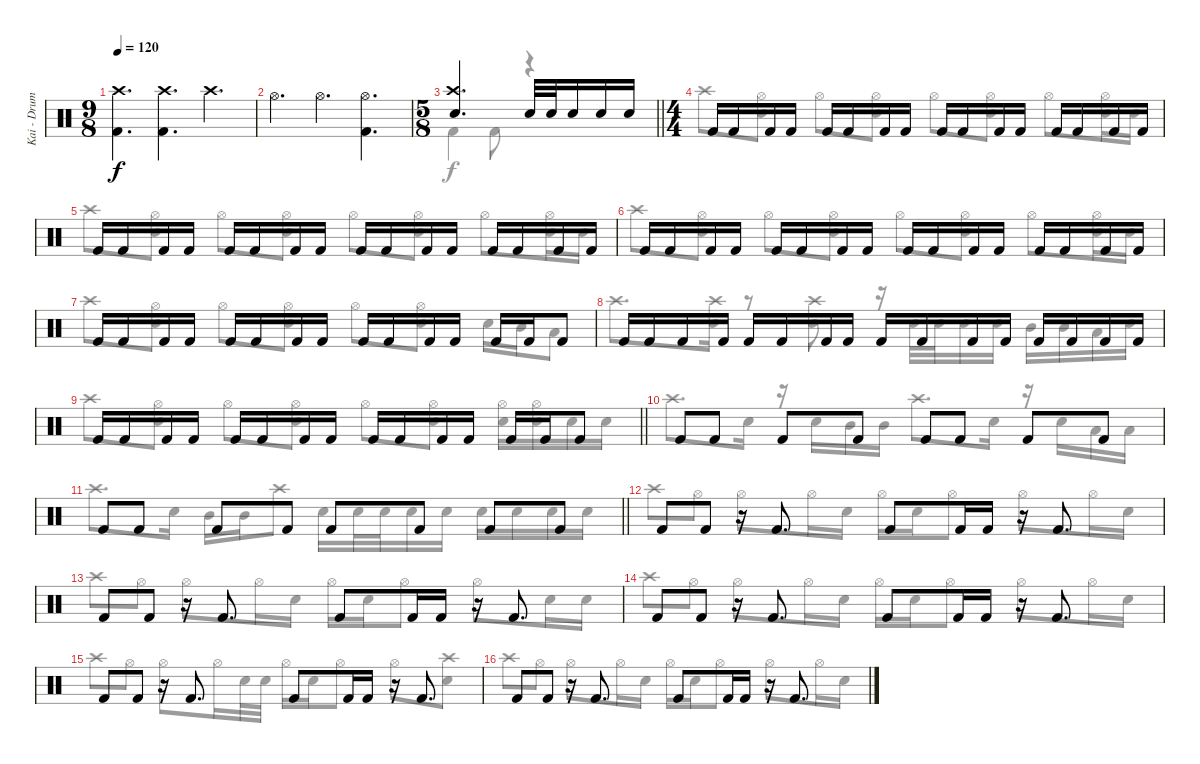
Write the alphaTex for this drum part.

\track ("Kai - Drums " "Kai - Drum") {instrument percussion}
\staff {score}
\articulation defaults
\voice
\ts (9 8)
\tempo 120
\clef neutral
\ks c
("Crash high (hit)" "Kick (hit) 2").4{d dy f} ("Crash high (hit)" "Kick (hit) 2").4{d} "Crash high (hit)".4{d} |
"Hi-Hat (open)".4{d} "Hi-Hat (open)".4{d} ("Hi-Hat (open)" "Kick (hit) 2").4{d} |
\ts (5 8)
\barLineRight lightlight
("Crash high (hit)" "Electric Snare (hit)").4{d} "Electric Snare (hit)".32 "Electric Snare (hit)".32 "Electric Snare (hit)".16 "Electric Snare (hit)".16 "Electric Snare (hit)".16 |
\ts (4 4)
"Kick (hit) 2".16 "Kick (hit) 2".16 "Kick (hit) 2".16 "Kick (hit) 2".16 "Kick (hit) 2".16 "Kick (hit) 2".16 "Kick (hit) 2".16 "Kick (hit) 2".16 "Kick (hit) 2".16 "Kick (hit) 2".16 "Kick (hit) 2".16 "Kick (hit) 2".16 "Kick (hit) 2".16 "Kick (hit) 2".16 "Kick (hit) 2".16 "Kick (hit) 2".16 |
"Kick (hit) 2".16 "Kick (hit) 2".16 "Kick (hit) 2".16 "Kick (hit) 2".16 "Kick (hit) 2".16 "Kick (hit) 2".16 "Kick (hit) 2".16 "Kick (hit) 2".16 "Kick (hit) 2".16 "Kick (hit) 2".16 "Kick (hit) 2".16 "Kick (hit) 2".16 "Kick (hit) 2".16 "Kick (hit) 2".16 "Kick (hit) 2".16 "Kick (hit) 2".16 |
"Kick (hit) 2".16 "Kick (hit) 2".16 "Kick (hit) 2".16 "Kick (hit) 2".16 "Kick (hit) 2".16 "Kick (hit) 2".16 "Kick (hit) 2".16 "Kick (hit) 2".16 "Kick (hit) 2".16 "Kick (hit) 2".16 "Kick (hit) 2".16 "Kick (hit) 2".16 "Kick (hit) 2".16 "Kick (hit) 2".16 "Kick (hit) 2".16 "Kick (hit) 2".16 |
"Kick (hit) 2".16 "Kick (hit) 2".16 "Kick (hit) 2".16 "Kick (hit) 2".16 "Kick (hit) 2".16 "Kick (hit) 2".16 "Kick (hit) 2".16 "Kick (hit) 2".16 "Kick (hit) 2".16 "Kick (hit) 2".16 "Kick (hit) 2".16 "Kick (hit) 2".16 "Kick (hit) 2".16 "Kick (hit) 2".16 "Kick (hit) 2".8 |
"Kick (hit) 2".16 "Kick (hit) 2".16 "Kick (hit) 2".16 "Kick (hit) 2".16 "Kick (hit) 2".16 "Kick (hit) 2".16 "Kick (hit) 2".16 "Kick (hit) 2".16 "Kick (hit) 2".16 "Kick (hit) 2".16 "Kick (hit) 2".16 "Kick (hit) 2".16 "Kick (hit) 2".16 "Kick (hit) 2".16 "Kick (hit) 2".16 "Kick (hit) 2".16 |
\barLineRight lightlight "Kick (hit) 2".16 "Kick (hit) 2".16 "Kick (hit) 2".16 "Kick (hit) 2".16 "Kick (hit) 2".16 "Kick (hit) 2".16 "Kick (hit) 2".16 "Kick (hit) 2".16 "Kick (hit) 2".16 "Kick (hit) 2".16 "Kick (hit) 2".16 "Kick (hit) 2".16 "Kick (hit) 2".16 "Kick (hit) 2".16 "Kick (hit) 2".8
|
"Kick (hit) 2".8 "Kick (hit) 2".8 "Kick (hit) 2".8 "Kick (hit) 2".8 "Kick (hit) 2".8 "Kick (hit) 2".8 "Kick (hit) 2".8 "Kick (hit) 2".8 |
\barLineRight lightlight "Kick (hit) 2".8 "Kick (hit) 2".8 "Kick (hit) 2".8 "Kick (hit) 2".8 "Kick (hit) 2".8 "Kick (hit) 2".8 "Kick (hit) 2".8 "Kick (hit) 2".8
|
"Kick (hit) 2".8 "Kick (hit) 2".8 r.16 "Kick (hit) 2".8{d} "Kick (hit) 2".8 "Kick (hit) 2".16 "Kick (hit) 2".16 r.16 "Kick (hit) 2".8{d} |
"Kick (hit) 2".8 "Kick (hit) 2".8 r.16 "Kick (hit) 2".8{d} "Kick (hit) 2".8 "Kick (hit) 2".16 "Kick (hit) 2".16 r.16 "Kick (hit) 2".8{d} |
"Kick (hit) 2".8 "Kick (hit) 2".8 r.16 "Kick (hit) 2".8{d} "Kick (hit) 2".8 "Kick (hit) 2".16 "Kick (hit) 2".16 r.16 "Kick (hit) 2".8{d} |
"Kick (hit) 2".8 "Kick (hit) 2".8 r.16 "Kick (hit) 2".8{d} "Kick (hit) 2".8 "Kick (hit) 2".16 "Kick (hit) 2".16 r.16 "Kick (hit) 2".8{d} |
"Kick (hit) 2".8 "Kick (hit) 2".8 r.16 "Kick (hit) 2".8{d} "Kick (hit) 2".8 "Kick (hit) 2".16 "Kick (hit) 2".16 r.16 "Kick (hit) 2".8{d}
\voice
\clef neutral
\ottava regular
\simile none
\ks c
|
|
\barLineRight lightlight "Kick (hit) 2".4 "Kick (hit) 2".8
r.4 |
"Crash high (hit)".8 ("Hi-Hat (open)" "Electric Snare (hit)").8 "Hi-Hat (open)".8 ("Hi-Hat (open)" "Electric Snare (hit)").8 "Hi-Hat (open)".8 ("Hi-Hat (open)" "Electric Snare (hit)").8 "Hi-Hat (open)".8 ("Hi-Hat (open)" "Electric Snare (hit)").16 "Electric Snare (hit)".16 |
"Crash high (hit)".8 ("Hi-Hat (open)" "Electric Snare (hit)").8 "Hi-Hat (open)".8 ("Hi-Hat (open)" "Electric Snare (hit)").8 "Hi-Hat (open)".8 ("Hi-Hat (open)" "Electric Snare (hit)").8 "Hi-Hat (open)".8 ("Hi-Hat (open)" "Electric Snare (hit)").16 "Electric Snare (hit)".16 |
"Crash high (hit)".8 ("Hi-Hat (open)" "Electric Snare (hit)").8 "Hi-Hat (open)".8 ("Hi-Hat (open)" "Electric Snare (hit)").8 "Hi-Hat (open)".8 ("Hi-Hat (open)" "Electric Snare (hit)").8 "Hi-Hat (open)".8 ("Hi-Hat (open)" "Electric Snare (hit)").16 "Electric Snare (hit)".16 |
"Crash high (hit)".8 ("Hi-Hat (open)" "Electric Snare (hit)").8 "Hi-Hat (open)".8 ("Hi-Hat (open)" "Electric Snare (hit)").8 "Hi-Hat (open)".8 ("Hi-Hat (open)" "Electric Snare (hit)").8 "Electric Snare (hit)".16 "Mid Tom (hit)".16 "Low Tom (hit)".8 |
"Crash high (hit)".8{d} ("Crash high (hit)" "Electric Snare (hit)").16 r.8 ("Crash high (hit)" "Electric Snare (hit)").8 r.16 "Electric Snare (hit)".32 "Electric Snare (hit)".32 "Electric Snare (hit)".16 "Electric Snare (hit)".16 "Mid Tom (hit)".16 "Mid Tom (hit)".16 "Low Tom (hit)".16 "Electric Snare (hit)".16 |
\barLineRight lightlight "Crash high (hit)".8
("Hi-Hat (open)" "Electric Snare (hit)").8 "Hi-Hat (open)".8 ("Hi-Hat (open)" "Electric Snare (hit)").8 "Hi-Hat (open)".8 ("Hi-Hat (open)" "Electric Snare (hit)").8 ("Hi-Hat (open)" "Electric Snare (hit)").16 ("Hi-Hat (open)" "Electric Snare (hit)").16 "Electric Snare (hit)".16 "Electric Snare (hit)".16 |
"Crash high (hit)".8{d} "Electric Snare (hit)".16 r.16 "Electric Snare (hit)".16 "Mid Tom (hit)".16 "Mid Tom (hit)".16 "Crash high (hit)".8{d} "Electric Snare (hit)".16 r.16 "Electric Snare (hit)".16 "Low Tom (hit)".16 "Low Tom (hit)".16 |
\barLineRight lightlight "Crash high (hit)".8{d} "Electric Snare (hit)".16 "Mid Tom (hit)".16 "Mid Tom (hit)".16 "Crash high (hit)".8 "Electric Snare (hit)".16 "Electric Snare (hit)".32 "Electric Snare (hit)".32 "Electric Snare (hit)".16 "Electric Snare (hit)".16 "Electric Snare (hit)".16 "Electric Snare (hit)".16 "Electric Snare (hit)".16 "Electric Snare (hit)".16
|
"Crash high (hit)".8 "Hi-Hat (open)".8 "Hi-Hat (open)".8 "Hi-Hat (open)".16 "Electric Snare (hit)".16 "Hi-Hat (open)".16 "Electric Snare (hit)".16 "Hi-Hat (open)".8 "Hi-Hat (open)".8 "Hi-Hat (open)".16 "Electric Snare (hit)".16 |
"Crash high (hit)".8 "Hi-Hat (open)".8 "Hi-Hat (open)".8 "Hi-Hat (open)".16 "Electric Snare (hit)".16 "Hi-Hat (open)".16 "Electric Snare (hit)".16 "Hi-Hat (open)".8 "Hi-Hat (open)".8 "Electric Snare (hit)".16 "Electric Snare (hit)".16 |
"Crash high (hit)".8 "Hi-Hat (open)".8 "Hi-Hat (open)".8 "Hi-Hat (open)".16 "Electric Snare (hit)".16 "Hi-Hat (open)".16 "Electric Snare (hit)".16 "Hi-Hat (open)".8 "Hi-Hat (open)".8 "Hi-Hat (open)".16 "Electric Snare (hit)".16 |
"Crash high (hit)".8 "Hi-Hat (open)".8 "Hi-Hat (open)".8 "Hi-Hat (open)".16 "Electric Snare (hit)".32 "Electric Snare (hit)".32 "Hi-Hat (open)".16 "Electric Snare (hit)".16 "Hi-Hat (open)".8 "Hi-Hat (open)".8 ("Crash high (hit)" "Electric Snare (hit)").8 |
"Crash high (hit)".8 "Hi-Hat (open)".8 "Hi-Hat (open)".8 "Hi-Hat (open)".16 "Electric Snare (hit)".16 "Hi-Hat (open)".16 "Electric Snare (hit)".16 "Hi-Hat (open)".8 "Hi-Hat (open)".8 "Hi-Hat (open)".16 "Electric Snare (hit)".16
